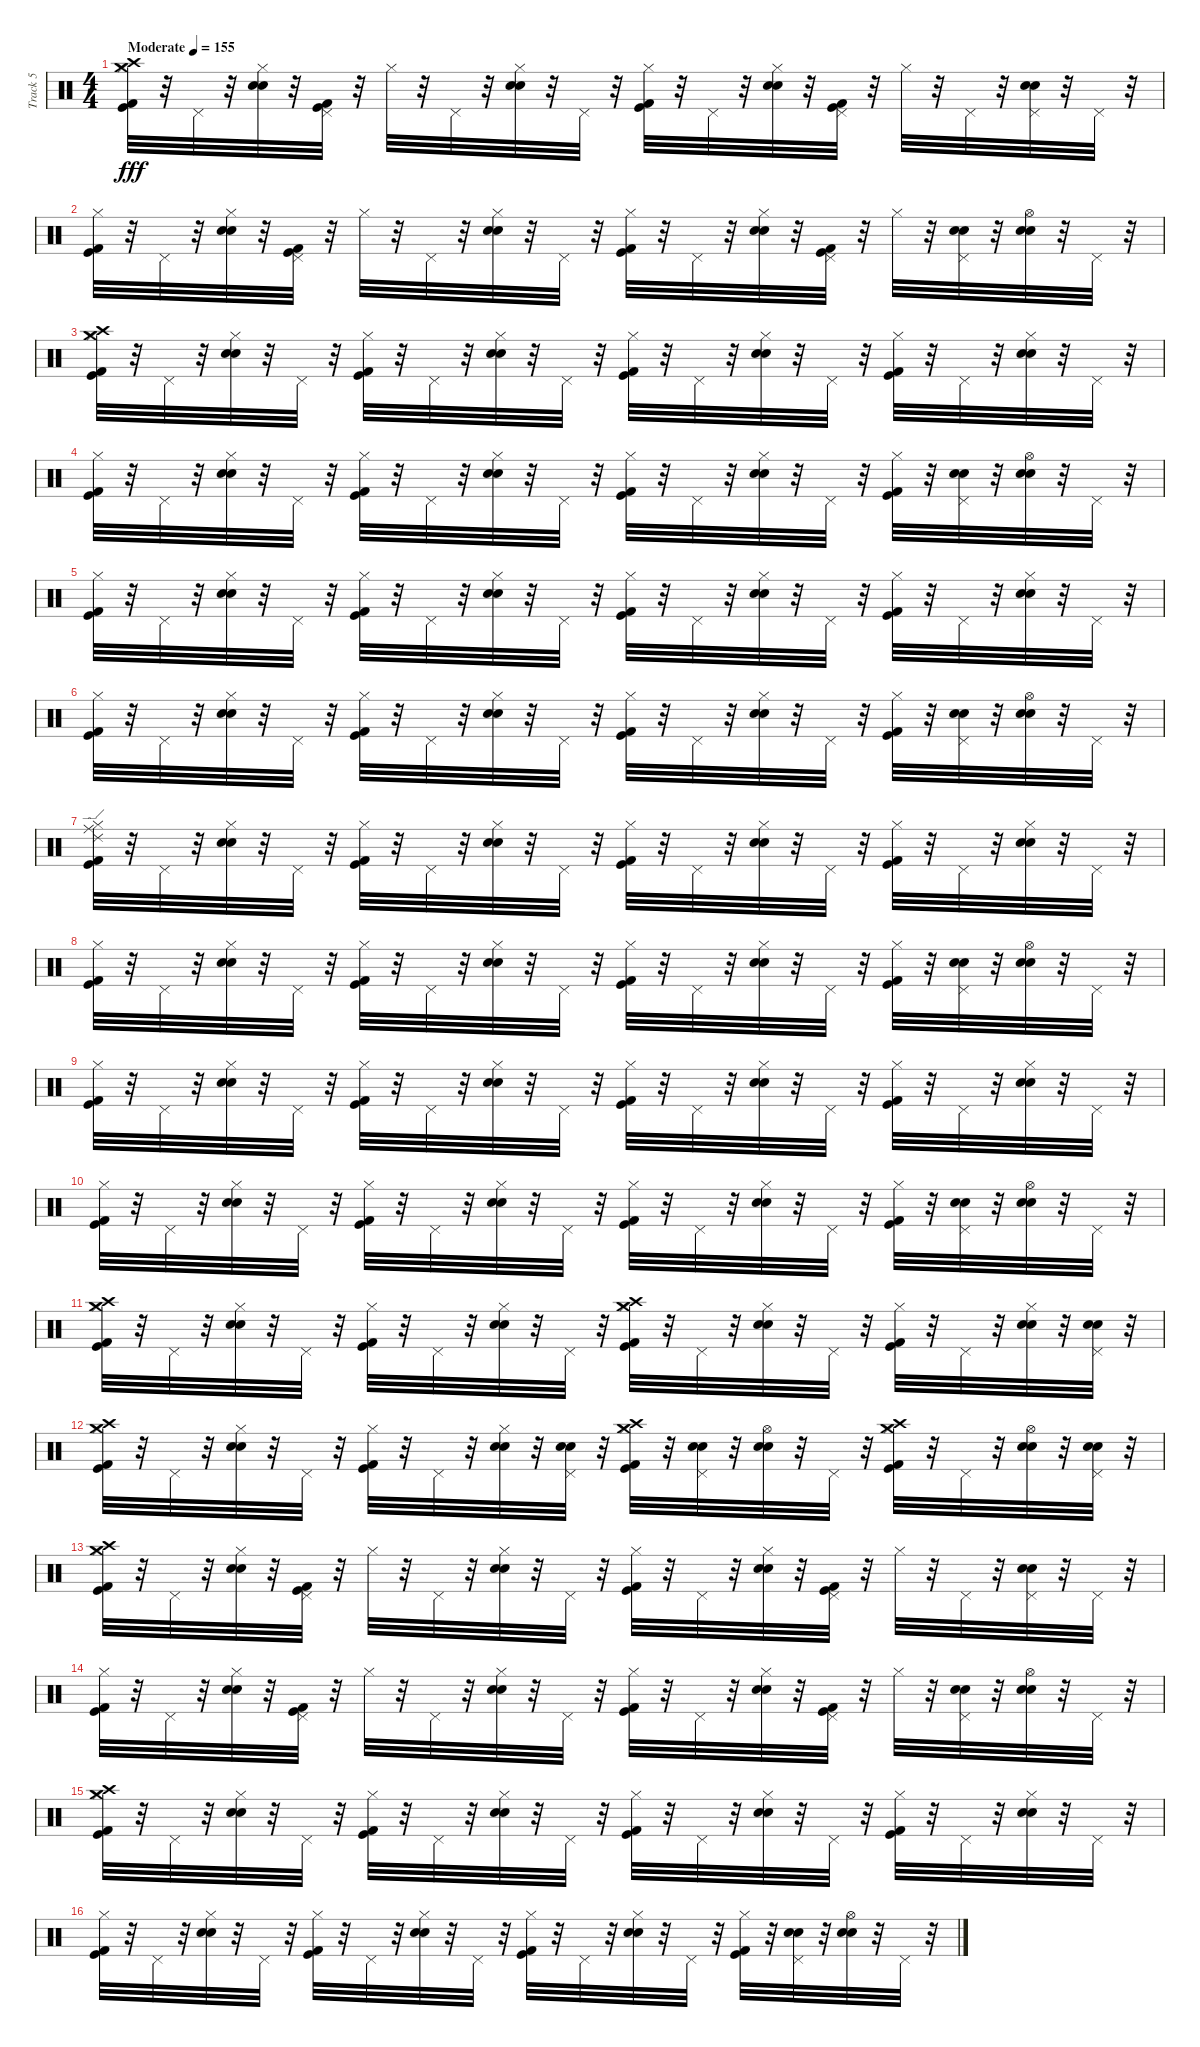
\track ("Track 5" "Track 5") {instrument percussion}
\staff {score}
\articulation defaults
\ts (4 4)
\tempo (155 "Moderate")
\clef neutral
\ks c
("Kick (hit)" "Kick (hit) 2" "Hi-Hat (closed)" "Crash high (hit)" "Crash medium (hit)").32{dy fff} r.32 "Pedal Hi-Hat (hit)".32 r.32 ("Snare (hit) 2" "Electric Snare (hit)" "Hi-Hat (closed)").32 r.32 ("Kick (hit)" "Kick (hit) 2" "Pedal Hi-Hat (hit)").32 r.32 "Hi-Hat (closed)".32 r.32 "Pedal Hi-Hat (hit)".32 r.32 ("Snare (hit) 2" "Electric Snare (hit)" "Hi-Hat (closed)").32 r.32 "Pedal Hi-Hat (hit)".32 r.32 ("Kick (hit)" "Kick (hit) 2" "Hi-Hat (closed)").32 r.32 "Pedal Hi-Hat (hit)".32 r.32 ("Snare (hit) 2" "Electric Snare (hit)" "Hi-Hat (closed)").32 r.32 ("Kick (hit)" "Kick (hit) 2" "Pedal Hi-Hat (hit)").32 r.32 "Hi-Hat (closed)".32 r.32 "Pedal Hi-Hat (hit)".32 r.32 ("Snare (hit) 2" "Electric Snare (hit)" "Pedal Hi-Hat (hit)").32 r.32 "Pedal Hi-Hat (hit)".32 r.32 |
("Kick (hit)" "Kick (hit) 2" "Hi-Hat (closed)").32 r.32 "Pedal Hi-Hat (hit)".32 r.32 ("Snare (hit) 2" "Electric Snare (hit)" "Hi-Hat (closed)").32 r.32 ("Kick (hit)" "Kick (hit) 2" "Pedal Hi-Hat (hit)").32 r.32 "Hi-Hat (closed)".32 r.32 "Pedal Hi-Hat (hit)".32 r.32 ("Snare (hit) 2" "Electric Snare (hit)" "Hi-Hat (closed)").32 r.32 "Pedal Hi-Hat (hit)".32 r.32 ("Kick (hit)" "Kick (hit) 2" "Hi-Hat (closed)").32 r.32 "Pedal Hi-Hat (hit)".32 r.32 ("Snare (hit) 2" "Electric Snare (hit)" "Hi-Hat (closed)").32 r.32 ("Kick (hit)" "Kick (hit) 2" "Pedal Hi-Hat (hit)").32 r.32 "Hi-Hat (closed)".32 r.32 ("Snare (hit) 2" "Electric Snare (hit)" "Pedal Hi-Hat (hit)").32 r.32 ("Snare (hit) 2" "Electric Snare (hit)" "Hi-Hat (open)").32 r.32 "Pedal Hi-Hat (hit)".32 r.32 |
("Kick (hit)" "Kick (hit) 2" "Hi-Hat (closed)" "Crash high (hit)" "Crash medium (hit)").32 r.32 "Pedal Hi-Hat (hit)".32 r.32 ("Snare (hit) 2" "Electric Snare (hit)" "Hi-Hat (closed)").32 r.32 "Pedal Hi-Hat (hit)".32 r.32 ("Kick (hit)" "Kick (hit) 2" "Hi-Hat (closed)").32 r.32 "Pedal Hi-Hat (hit)".32 r.32 ("Snare (hit) 2" "Electric Snare (hit)" "Hi-Hat (closed)").32 r.32 "Pedal Hi-Hat (hit)".32 r.32 ("Kick (hit)" "Kick (hit) 2" "Hi-Hat (closed)").32 r.32 "Pedal Hi-Hat (hit)".32 r.32 ("Snare (hit) 2" "Electric Snare (hit)" "Hi-Hat (closed)").32 r.32 "Pedal Hi-Hat (hit)".32 r.32 ("Kick (hit)" "Kick (hit) 2" "Hi-Hat (closed)").32 r.32 "Pedal Hi-Hat (hit)".32 r.32 ("Snare (hit) 2" "Electric Snare (hit)" "Hi-Hat (closed)").32 r.32 "Pedal Hi-Hat (hit)".32 r.32 |
("Kick (hit)" "Kick (hit) 2" "Hi-Hat (closed)").32 r.32 "Pedal Hi-Hat (hit)".32 r.32 ("Snare (hit) 2" "Electric Snare (hit)" "Hi-Hat (closed)").32 r.32 "Pedal Hi-Hat (hit)".32 r.32 ("Kick (hit)" "Kick (hit) 2" "Hi-Hat (closed)").32 r.32 "Pedal Hi-Hat (hit)".32 r.32 ("Snare (hit) 2" "Electric Snare (hit)" "Hi-Hat (closed)").32 r.32 "Pedal Hi-Hat (hit)".32 r.32 ("Kick (hit)" "Kick (hit) 2" "Hi-Hat (closed)").32 r.32 "Pedal Hi-Hat (hit)".32 r.32 ("Snare (hit) 2" "Electric Snare (hit)" "Hi-Hat (closed)").32 r.32 "Pedal Hi-Hat (hit)".32 r.32 ("Kick (hit)" "Kick (hit) 2" "Hi-Hat (closed)").32 r.32 ("Snare (hit) 2" "Electric Snare (hit)" "Pedal Hi-Hat (hit)").32 r.32 ("Snare (hit) 2" "Electric Snare (hit)" "Hi-Hat (open)").32 r.32 "Pedal Hi-Hat (hit)".32 r.32 |
("Kick (hit)" "Kick (hit) 2" "Hi-Hat (closed)").32 r.32 "Pedal Hi-Hat (hit)".32 r.32 ("Snare (hit) 2" "Electric Snare (hit)" "Hi-Hat (closed)").32 r.32 "Pedal Hi-Hat (hit)".32 r.32 ("Kick (hit)" "Kick (hit) 2" "Hi-Hat (closed)").32 r.32 "Pedal Hi-Hat (hit)".32 r.32 ("Snare (hit) 2" "Electric Snare (hit)" "Hi-Hat (closed)").32 r.32 "Pedal Hi-Hat (hit)".32 r.32 ("Kick (hit)" "Kick (hit) 2" "Hi-Hat (closed)").32 r.32 "Pedal Hi-Hat (hit)".32 r.32 ("Snare (hit) 2" "Electric Snare (hit)" "Hi-Hat (closed)").32 r.32 "Pedal Hi-Hat (hit)".32 r.32 ("Kick (hit)" "Kick (hit) 2" "Hi-Hat (closed)").32 r.32 "Pedal Hi-Hat (hit)".32 r.32 ("Snare (hit) 2" "Electric Snare (hit)" "Hi-Hat (closed)").32 r.32 "Pedal Hi-Hat (hit)".32 r.32 |
("Kick (hit)" "Kick (hit) 2" "Hi-Hat (closed)").32 r.32 "Pedal Hi-Hat (hit)".32 r.32 ("Snare (hit) 2" "Electric Snare (hit)" "Hi-Hat (closed)").32 r.32 "Pedal Hi-Hat (hit)".32 r.32 ("Kick (hit)" "Kick (hit) 2" "Hi-Hat (closed)").32 r.32 "Pedal Hi-Hat (hit)".32 r.32 ("Snare (hit) 2" "Electric Snare (hit)" "Hi-Hat (closed)").32 r.32 "Pedal Hi-Hat (hit)".32 r.32 ("Kick (hit)" "Kick (hit) 2" "Hi-Hat (closed)").32 r.32 "Pedal Hi-Hat (hit)".32 r.32 ("Snare (hit) 2" "Electric Snare (hit)" "Hi-Hat (closed)").32 r.32 "Pedal Hi-Hat (hit)".32 r.32 ("Kick (hit)" "Kick (hit) 2" "Hi-Hat (closed)").32 r.32 ("Snare (hit) 2" "Electric Snare (hit)" "Pedal Hi-Hat (hit)").32 r.32 ("Snare (hit) 2" "Electric Snare (hit)" "Hi-Hat (open)").32 r.32 "Pedal Hi-Hat (hit)".32 r.32 |
("Kick (hit)" "Kick (hit) 2" "Hi-Hat (closed)" "Ride (middle)" "Ride (edge) 2").32 r.32 "Pedal Hi-Hat (hit)".32 r.32 ("Snare (hit) 2" "Electric Snare (hit)" "Hi-Hat (closed)").32 r.32 "Pedal Hi-Hat (hit)".32 r.32 ("Kick (hit)" "Kick (hit) 2" "Hi-Hat (closed)").32 r.32 "Pedal Hi-Hat (hit)".32 r.32 ("Snare (hit) 2" "Electric Snare (hit)" "Hi-Hat (closed)").32 r.32 "Pedal Hi-Hat (hit)".32 r.32 ("Kick (hit)" "Kick (hit) 2" "Hi-Hat (closed)").32 r.32 "Pedal Hi-Hat (hit)".32 r.32 ("Snare (hit) 2" "Electric Snare (hit)" "Hi-Hat (closed)").32 r.32 "Pedal Hi-Hat (hit)".32 r.32 ("Kick (hit)" "Kick (hit) 2" "Hi-Hat (closed)").32 r.32 "Pedal Hi-Hat (hit)".32 r.32 ("Snare (hit) 2" "Electric Snare (hit)" "Hi-Hat (closed)").32 r.32 "Pedal Hi-Hat (hit)".32 r.32 |
("Kick (hit)" "Kick (hit) 2" "Hi-Hat (closed)").32 r.32 "Pedal Hi-Hat (hit)".32 r.32 ("Snare (hit) 2" "Electric Snare (hit)" "Hi-Hat (closed)").32 r.32 "Pedal Hi-Hat (hit)".32 r.32 ("Kick (hit)" "Kick (hit) 2" "Hi-Hat (closed)").32 r.32 "Pedal Hi-Hat (hit)".32 r.32 ("Snare (hit) 2" "Electric Snare (hit)" "Hi-Hat (closed)").32 r.32 "Pedal Hi-Hat (hit)".32 r.32 ("Kick (hit)" "Kick (hit) 2" "Hi-Hat (closed)").32 r.32 "Pedal Hi-Hat (hit)".32 r.32 ("Snare (hit) 2" "Electric Snare (hit)" "Hi-Hat (closed)").32 r.32 "Pedal Hi-Hat (hit)".32 r.32 ("Kick (hit)" "Kick (hit) 2" "Hi-Hat (closed)").32 r.32 ("Snare (hit) 2" "Electric Snare (hit)" "Pedal Hi-Hat (hit)").32 r.32 ("Snare (hit) 2" "Electric Snare (hit)" "Hi-Hat (open)").32 r.32 "Pedal Hi-Hat (hit)".32 r.32 |
("Kick (hit)" "Kick (hit) 2" "Hi-Hat (closed)").32 r.32 "Pedal Hi-Hat (hit)".32 r.32 ("Snare (hit) 2" "Electric Snare (hit)" "Hi-Hat (closed)").32 r.32 "Pedal Hi-Hat (hit)".32 r.32 ("Kick (hit)" "Kick (hit) 2" "Hi-Hat (closed)").32 r.32 "Pedal Hi-Hat (hit)".32 r.32 ("Snare (hit) 2" "Electric Snare (hit)" "Hi-Hat (closed)").32 r.32 "Pedal Hi-Hat (hit)".32 r.32 ("Kick (hit)" "Kick (hit) 2" "Hi-Hat (closed)").32 r.32 "Pedal Hi-Hat (hit)".32 r.32 ("Snare (hit) 2" "Electric Snare (hit)" "Hi-Hat (closed)").32 r.32 "Pedal Hi-Hat (hit)".32 r.32 ("Kick (hit)" "Kick (hit) 2" "Hi-Hat (closed)").32 r.32 "Pedal Hi-Hat (hit)".32 r.32 ("Snare (hit) 2" "Electric Snare (hit)" "Hi-Hat (closed)").32 r.32 "Pedal Hi-Hat (hit)".32 r.32 |
("Kick (hit)" "Kick (hit) 2" "Hi-Hat (closed)").32 r.32 "Pedal Hi-Hat (hit)".32 r.32 ("Snare (hit) 2" "Electric Snare (hit)" "Hi-Hat (closed)").32 r.32 "Pedal Hi-Hat (hit)".32 r.32 ("Kick (hit)" "Kick (hit) 2" "Hi-Hat (closed)").32 r.32 "Pedal Hi-Hat (hit)".32 r.32 ("Snare (hit) 2" "Electric Snare (hit)" "Hi-Hat (closed)").32 r.32 "Pedal Hi-Hat (hit)".32 r.32 ("Kick (hit)" "Kick (hit) 2" "Hi-Hat (closed)").32 r.32 "Pedal Hi-Hat (hit)".32 r.32 ("Snare (hit) 2" "Electric Snare (hit)" "Hi-Hat (closed)").32 r.32 "Pedal Hi-Hat (hit)".32 r.32 ("Kick (hit)" "Kick (hit) 2" "Hi-Hat (closed)").32 r.32 ("Snare (hit) 2" "Electric Snare (hit)" "Pedal Hi-Hat (hit)").32 r.32 ("Snare (hit) 2" "Electric Snare (hit)" "Hi-Hat (open)").32 r.32 "Pedal Hi-Hat (hit)".32 r.32 |
("Kick (hit)" "Kick (hit) 2" "Hi-Hat (closed)" "Crash high (hit)" "Crash medium (hit)").32 r.32 "Pedal Hi-Hat (hit)".32 r.32 ("Snare (hit) 2" "Electric Snare (hit)" "Hi-Hat (closed)").32 r.32 "Pedal Hi-Hat (hit)".32 r.32 ("Kick (hit)" "Kick (hit) 2" "Hi-Hat (closed)").32 r.32 "Pedal Hi-Hat (hit)".32 r.32 ("Snare (hit) 2" "Electric Snare (hit)" "Hi-Hat (closed)").32 r.32 "Pedal Hi-Hat (hit)".32 r.32 ("Kick (hit)" "Kick (hit) 2" "Hi-Hat (closed)" "Crash high (hit)" "Crash medium (hit)").32 r.32 "Pedal Hi-Hat (hit)".32 r.32 ("Snare (hit) 2" "Electric Snare (hit)" "Hi-Hat (closed)").32 r.32 "Pedal Hi-Hat (hit)".32 r.32 ("Kick (hit)" "Kick (hit) 2" "Hi-Hat (closed)").32 r.32 "Pedal Hi-Hat (hit)".32 r.32 ("Snare (hit) 2" "Electric Snare (hit)" "Hi-Hat (closed)").32 r.32 ("Snare (hit) 2" "Electric Snare (hit)" "Pedal Hi-Hat (hit)").32 r.32 |
("Kick (hit)" "Kick (hit) 2" "Hi-Hat (closed)" "Crash high (hit)" "Crash medium (hit)").32 r.32 "Pedal Hi-Hat (hit)".32 r.32 ("Snare (hit) 2" "Electric Snare (hit)" "Hi-Hat (closed)").32 r.32 "Pedal Hi-Hat (hit)".32 r.32 ("Kick (hit)" "Kick (hit) 2" "Hi-Hat (closed)").32 r.32 "Pedal Hi-Hat (hit)".32 r.32 ("Snare (hit) 2" "Electric Snare (hit)" "Hi-Hat (closed)").32 r.32 ("Snare (hit) 2" "Electric Snare (hit)" "Pedal Hi-Hat (hit)").32 r.32 ("Kick (hit)" "Kick (hit) 2" "Hi-Hat (closed)" "Crash high (hit)" "Crash medium (hit)").32 r.32 ("Snare (hit) 2" "Electric Snare (hit)" "Pedal Hi-Hat (hit)").32 r.32 ("Snare (hit) 2" "Electric Snare (hit)" "Hi-Hat (open)").32 r.32 "Pedal Hi-Hat (hit)".32 r.32 ("Kick (hit)" "Kick (hit) 2" "Hi-Hat (closed)" "Crash high (hit)" "Crash medium (hit)").32 r.32 "Pedal Hi-Hat (hit)".32 r.32 ("Snare (hit) 2" "Electric Snare (hit)" "Hi-Hat (open)").32 r.32 ("Snare (hit) 2" "Electric Snare (hit)" "Pedal Hi-Hat (hit)").32 r.32 |
("Kick (hit)" "Kick (hit) 2" "Hi-Hat (closed)" "Crash high (hit)" "Crash medium (hit)").32 r.32 "Pedal Hi-Hat (hit)".32 r.32 ("Snare (hit) 2" "Electric Snare (hit)" "Hi-Hat (closed)").32 r.32 ("Kick (hit)" "Kick (hit) 2" "Pedal Hi-Hat (hit)").32 r.32 "Hi-Hat (closed)".32 r.32 "Pedal Hi-Hat (hit)".32 r.32 ("Snare (hit) 2" "Electric Snare (hit)" "Hi-Hat (closed)").32 r.32 "Pedal Hi-Hat (hit)".32 r.32 ("Kick (hit)" "Kick (hit) 2" "Hi-Hat (closed)").32 r.32 "Pedal Hi-Hat (hit)".32 r.32 ("Snare (hit) 2" "Electric Snare (hit)" "Hi-Hat (closed)").32 r.32 ("Kick (hit)" "Kick (hit) 2" "Pedal Hi-Hat (hit)").32 r.32 "Hi-Hat (closed)".32 r.32 "Pedal Hi-Hat (hit)".32 r.32 ("Snare (hit) 2" "Electric Snare (hit)" "Pedal Hi-Hat (hit)").32 r.32 "Pedal Hi-Hat (hit)".32 r.32 |
("Kick (hit)" "Kick (hit) 2" "Hi-Hat (closed)").32 r.32 "Pedal Hi-Hat (hit)".32 r.32 ("Snare (hit) 2" "Electric Snare (hit)" "Hi-Hat (closed)").32 r.32 ("Kick (hit)" "Kick (hit) 2" "Pedal Hi-Hat (hit)").32 r.32 "Hi-Hat (closed)".32 r.32 "Pedal Hi-Hat (hit)".32 r.32 ("Snare (hit) 2" "Electric Snare (hit)" "Hi-Hat (closed)").32 r.32 "Pedal Hi-Hat (hit)".32 r.32 ("Kick (hit)" "Kick (hit) 2" "Hi-Hat (closed)").32 r.32 "Pedal Hi-Hat (hit)".32 r.32 ("Snare (hit) 2" "Electric Snare (hit)" "Hi-Hat (closed)").32 r.32 ("Kick (hit)" "Kick (hit) 2" "Pedal Hi-Hat (hit)").32 r.32 "Hi-Hat (closed)".32 r.32 ("Snare (hit) 2" "Electric Snare (hit)" "Pedal Hi-Hat (hit)").32 r.32 ("Snare (hit) 2" "Electric Snare (hit)" "Hi-Hat (open)").32 r.32 "Pedal Hi-Hat (hit)".32 r.32 |
("Kick (hit)" "Kick (hit) 2" "Hi-Hat (closed)" "Crash high (hit)" "Crash medium (hit)").32 r.32 "Pedal Hi-Hat (hit)".32 r.32 ("Snare (hit) 2" "Electric Snare (hit)" "Hi-Hat (closed)").32 r.32 "Pedal Hi-Hat (hit)".32 r.32 ("Kick (hit)" "Kick (hit) 2" "Hi-Hat (closed)").32 r.32 "Pedal Hi-Hat (hit)".32 r.32 ("Snare (hit) 2" "Electric Snare (hit)" "Hi-Hat (closed)").32 r.32 "Pedal Hi-Hat (hit)".32 r.32 ("Kick (hit)" "Kick (hit) 2" "Hi-Hat (closed)").32 r.32 "Pedal Hi-Hat (hit)".32 r.32 ("Snare (hit) 2" "Electric Snare (hit)" "Hi-Hat (closed)").32 r.32 "Pedal Hi-Hat (hit)".32 r.32 ("Kick (hit)" "Kick (hit) 2" "Hi-Hat (closed)").32 r.32 "Pedal Hi-Hat (hit)".32 r.32 ("Snare (hit) 2" "Electric Snare (hit)" "Hi-Hat (closed)").32 r.32 "Pedal Hi-Hat (hit)".32 r.32 |
("Kick (hit)" "Kick (hit) 2" "Hi-Hat (closed)").32 r.32 "Pedal Hi-Hat (hit)".32 r.32 ("Snare (hit) 2" "Electric Snare (hit)" "Hi-Hat (closed)").32 r.32 "Pedal Hi-Hat (hit)".32 r.32 ("Kick (hit)" "Kick (hit) 2" "Hi-Hat (closed)").32 r.32 "Pedal Hi-Hat (hit)".32 r.32 ("Snare (hit) 2" "Electric Snare (hit)" "Hi-Hat (closed)").32 r.32 "Pedal Hi-Hat (hit)".32 r.32 ("Kick (hit)" "Kick (hit) 2" "Hi-Hat (closed)").32 r.32 "Pedal Hi-Hat (hit)".32 r.32 ("Snare (hit) 2" "Electric Snare (hit)" "Hi-Hat (closed)").32 r.32 "Pedal Hi-Hat (hit)".32 r.32 ("Kick (hit)" "Kick (hit) 2" "Hi-Hat (closed)").32 r.32 ("Snare (hit) 2" "Electric Snare (hit)" "Pedal Hi-Hat (hit)").32 r.32 ("Snare (hit) 2" "Electric Snare (hit)" "Hi-Hat (open)").32 r.32 "Pedal Hi-Hat (hit)".32 r.32
